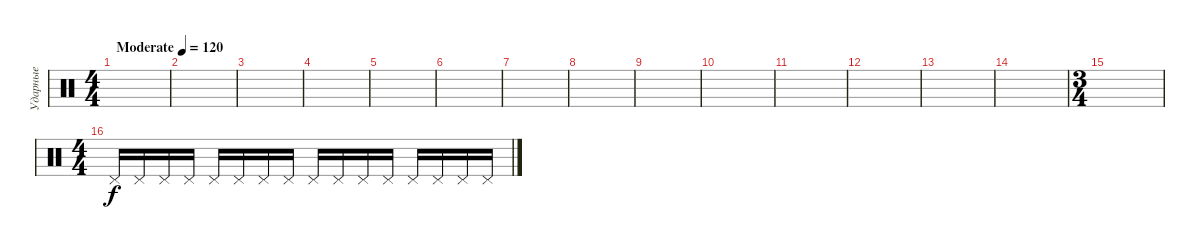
\track ("Ударные" "Ударные") {instrument percussion}
\staff {score}
\articulation defaults
\ts (4 4)
\tempo (120 "Moderate")
\tempo 80
\tempo (120 "Moderate")
\clef neutral
\ks c
|
|
|
|
|
|
|
|
|
|
|
|
|
|
\ts (3 4)
|
\ts (4 4)
"Pedal Hi-Hat (hit)".16 "Pedal Hi-Hat (hit)".16 "Pedal Hi-Hat (hit)".16 "Pedal Hi-Hat (hit)".16 "Pedal Hi-Hat (hit)".16 "Pedal Hi-Hat (hit)".16 "Pedal Hi-Hat (hit)".16 "Pedal Hi-Hat (hit)".16 "Pedal Hi-Hat (hit)".16 "Pedal Hi-Hat (hit)".16 "Pedal Hi-Hat (hit)".16 "Pedal Hi-Hat (hit)".16 "Pedal Hi-Hat (hit)".16 "Pedal Hi-Hat (hit)".16 "Pedal Hi-Hat (hit)".16 "Pedal Hi-Hat (hit)".16
